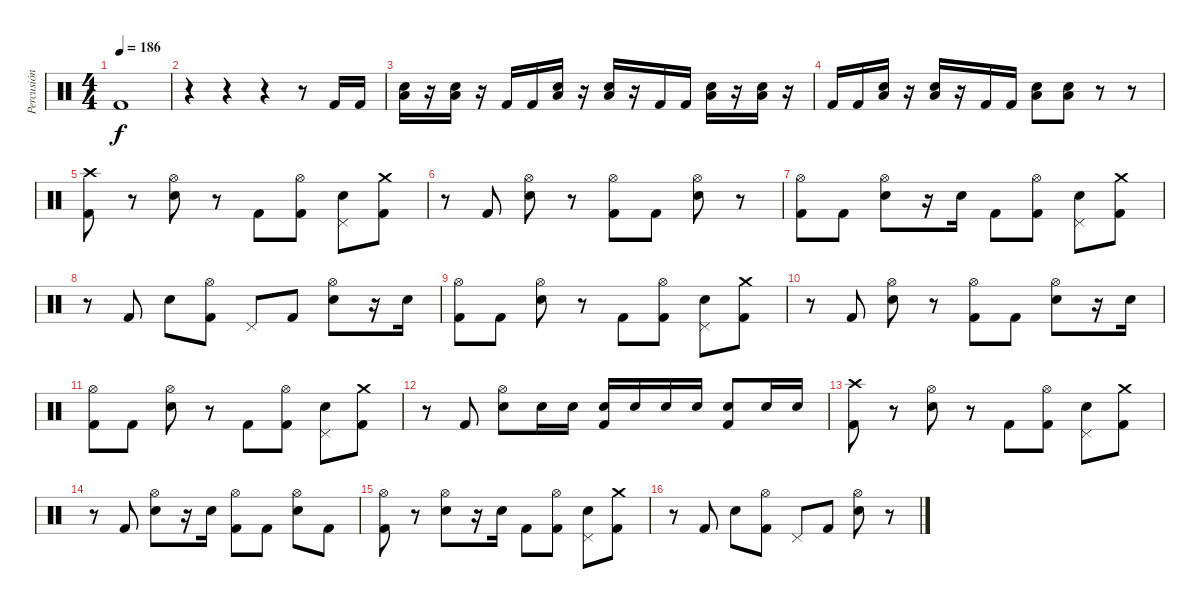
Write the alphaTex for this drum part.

\track ("Percusión" "Percusión") {instrument percussion}
\staff {score}
\articulation defaults
\ts (4 4)
\tempo 186
\clef neutral
\ks c "Kick (hit) 2".1{dy f volume 16}
|
r.4 r.4 r.4 r.8 "Kick (hit) 2".16{volume 16} "Kick (hit) 2".16 |
("Snare (hit) 2" "Low Floor Tom (hit)").16 r.16 ("Snare (hit) 2" "Low Floor Tom (hit)").16 r.16 "Kick (hit) 2".16 "Kick (hit) 2".16 ("Snare (hit) 2" "Low Floor Tom (hit)").16 r.16 ("Snare (hit) 2" "Low Floor Tom (hit)").16 r.16 "Kick (hit) 2".16 "Kick (hit) 2".16 ("Snare (hit) 2" "Low Floor Tom (hit)").16 r.16 ("Snare (hit) 2" "Low Floor Tom (hit)").16 r.16 |
"Kick (hit) 2".16 "Kick (hit) 2".16 ("Snare (hit) 2" "Low Floor Tom (hit)").16 r.16 ("Snare (hit) 2" "Low Floor Tom (hit)").16 r.16 "Kick (hit) 2".16 "Kick (hit) 2".16 ("Snare (hit) 2" "Low Floor Tom (hit)").8 ("Snare (hit) 2" "Low Floor Tom (hit)").8 r.8 r.8 |
("Kick (hit) 2" "Crash high (hit)").8 r.8 ("Snare (hit) 2" "Hi-Hat (open)").8 r.8 "Kick (hit) 2".8 ("Kick (hit) 2" "Hi-Hat (open)").8 ("Snare (hit) 2" "Pedal Hi-Hat (hit)").8 ("Kick (hit) 2" "Crash medium (hit)").8 |
r.8 "Kick (hit) 2".8 ("Snare (hit) 2" "Hi-Hat (open)").8 r.8 ("Kick (hit) 2" "Hi-Hat (open)").8 "Kick (hit) 2".8 ("Snare (hit) 2" "Hi-Hat (open)").8 r.8 |
("Kick (hit) 2" "Hi-Hat (open)").8 "Kick (hit) 2".8 ("Snare (hit) 2" "Hi-Hat (open)").8 r.16 "Snare (hit) 2".16 "Kick (hit) 2".8 ("Kick (hit) 2" "Hi-Hat (open)").8 ("Snare (hit) 2" "Pedal Hi-Hat (hit)").8 ("Kick (hit) 2" "Crash medium (hit)").8 |
r.8 "Kick (hit) 2".8 "Snare (hit) 2".8 ("Kick (hit) 2" "Hi-Hat (open)").8 "Pedal Hi-Hat (hit)".8 "Kick (hit) 2".8 ("Snare (hit) 2" "Hi-Hat (open)").8 r.16 "Snare (hit) 2".16 |
("Kick (hit) 2" "Hi-Hat (open)").8 "Kick (hit) 2".8 ("Snare (hit) 2" "Hi-Hat (open)").8 r.8 "Kick (hit) 2".8 ("Kick (hit) 2" "Hi-Hat (open)").8 ("Snare (hit) 2" "Pedal Hi-Hat (hit)").8 ("Kick (hit) 2" "Crash medium (hit)").8 |
r.8 "Kick (hit) 2".8 ("Snare (hit) 2" "Hi-Hat (open)").8 r.8 ("Kick (hit) 2" "Hi-Hat (open)").8 "Kick (hit) 2".8 ("Snare (hit) 2" "Hi-Hat (open)").8 r.16 "Snare (hit) 2".16 |
("Kick (hit) 2" "Hi-Hat (open)").8 "Kick (hit) 2".8 ("Snare (hit) 2" "Hi-Hat (open)").8 r.8 "Kick (hit) 2".8 ("Kick (hit) 2" "Hi-Hat (open)").8 ("Snare (hit) 2" "Pedal Hi-Hat (hit)").8 ("Kick (hit) 2" "Crash medium (hit)").8 |
r.8 "Kick (hit) 2".8 ("Snare (hit) 2" "Hi-Hat (open)").8 "Snare (hit) 2".16 "Snare (hit) 2".16 ("Kick (hit) 2" "Snare (hit) 2").16 "Snare (hit) 2".16 "Snare (hit) 2".16 "Snare (hit) 2".16 ("Kick (hit) 2" "Snare (hit) 2").8 "Snare (hit) 2".16 "Snare (hit) 2".16 |
("Kick (hit) 2" "Crash high (hit)").8 r.8 ("Snare (hit) 2" "Hi-Hat (open)").8 r.8 "Kick (hit) 2".8 ("Kick (hit) 2" "Hi-Hat (open)").8 ("Snare (hit) 2" "Pedal Hi-Hat (hit)").8 ("Kick (hit) 2" "Crash medium (hit)").8 |
r.8 "Kick (hit) 2".8 ("Snare (hit) 2" "Hi-Hat (open)").8 r.16 "Snare (hit) 2".16 ("Kick (hit) 2" "Hi-Hat (open)").8 "Kick (hit) 2".8 ("Snare (hit) 2" "Hi-Hat (open)").8 "Kick (hit) 2".8 |
("Kick (hit) 2" "Hi-Hat (open)").8 r.8 ("Snare (hit) 2" "Hi-Hat (open)").8 r.16 "Snare (hit) 2".16 "Kick (hit) 2".8 ("Kick (hit) 2" "Hi-Hat (open)").8 ("Snare (hit) 2" "Pedal Hi-Hat (hit)").8 ("Kick (hit) 2" "Crash medium (hit)").8 |
r.8 "Kick (hit) 2".8 "Snare (hit) 2".8 ("Kick (hit) 2" "Hi-Hat (open)").8 "Pedal Hi-Hat (hit)".8 "Kick (hit) 2".8 ("Snare (hit) 2" "Hi-Hat (open)").8 r.8
